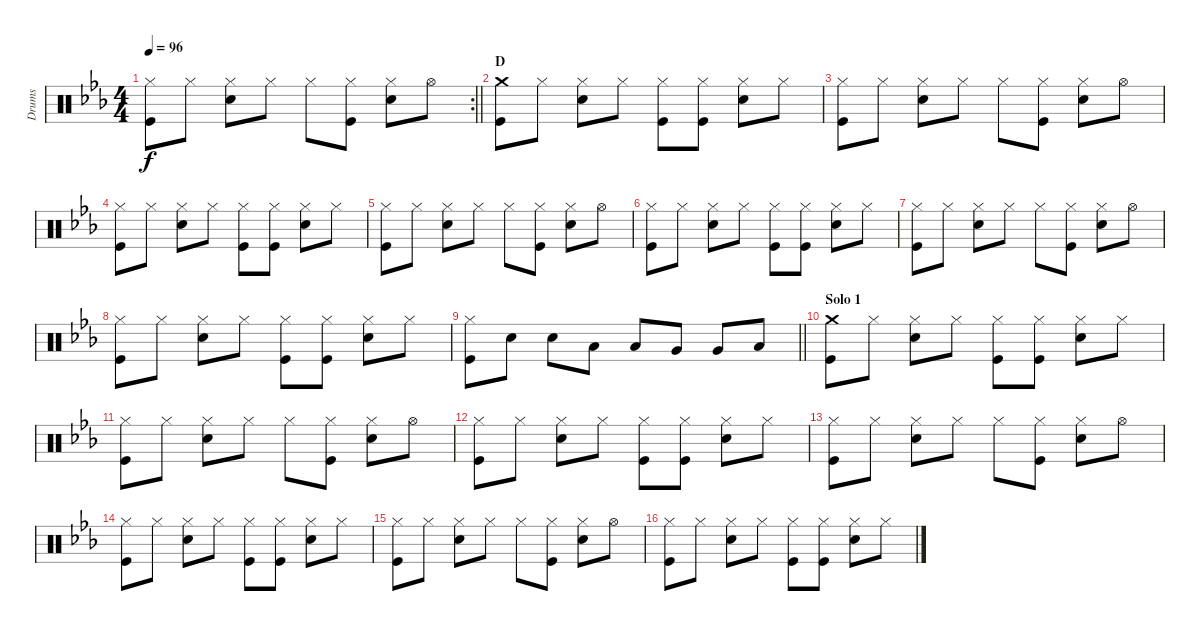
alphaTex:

\track ("Drums" "Drums") {instrument percussion}
\staff {score}
\articulation defaults
\rc 2
\ts (4 4)
\tempo 96
\clef neutral
\barLineRight lightlight
\ks cminor
("Hi-Hat (closed)" "Kick (hit)").8{dy f} "Hi-Hat (closed)".8 ("Hi-Hat (closed)" "Snare (hit) 2").8 "Hi-Hat (closed)".8 "Hi-Hat (closed)".8 ("Hi-Hat (closed)" "Kick (hit)").8 ("Hi-Hat (closed)" "Snare (hit) 2").8 "Hi-Hat (open)".8 |
\section ("" "D")
("Crash medium (hit)" "Kick (hit)").8 "Hi-Hat (closed)".8 ("Hi-Hat (closed)" "Snare (hit) 2").8 "Hi-Hat (closed)".8 ("Hi-Hat (closed)" "Kick (hit)").8 ("Hi-Hat (closed)" "Kick (hit)").8 ("Hi-Hat (closed)" "Snare (hit) 2").8 "Hi-Hat (closed)".8 |
("Hi-Hat (closed)" "Kick (hit)").8 "Hi-Hat (closed)".8 ("Hi-Hat (closed)" "Snare (hit) 2").8 "Hi-Hat (closed)".8 "Hi-Hat (closed)".8 ("Hi-Hat (closed)" "Kick (hit)").8 ("Hi-Hat (closed)" "Snare (hit) 2").8 "Hi-Hat (open)".8 |
("Hi-Hat (closed)" "Kick (hit)").8 "Hi-Hat (closed)".8 ("Hi-Hat (closed)" "Snare (hit) 2").8 "Hi-Hat (closed)".8 ("Hi-Hat (closed)" "Kick (hit)").8 ("Hi-Hat (closed)" "Kick (hit)").8 ("Hi-Hat (closed)" "Snare (hit) 2").8 "Hi-Hat (closed)".8 |
("Hi-Hat (closed)" "Kick (hit)").8 "Hi-Hat (closed)".8 ("Hi-Hat (closed)" "Snare (hit) 2").8 "Hi-Hat (closed)".8 "Hi-Hat (closed)".8 ("Hi-Hat (closed)" "Kick (hit)").8 ("Hi-Hat (closed)" "Snare (hit) 2").8 "Hi-Hat (open)".8 |
("Hi-Hat (closed)" "Kick (hit)").8 "Hi-Hat (closed)".8 ("Hi-Hat (closed)" "Snare (hit) 2").8 "Hi-Hat (closed)".8 ("Hi-Hat (closed)" "Kick (hit)").8 ("Hi-Hat (closed)" "Kick (hit)").8 ("Hi-Hat (closed)" "Snare (hit) 2").8 "Hi-Hat (closed)".8 |
("Hi-Hat (closed)" "Kick (hit)").8 "Hi-Hat (closed)".8 ("Hi-Hat (closed)" "Snare (hit) 2").8 "Hi-Hat (closed)".8 "Hi-Hat (closed)".8 ("Hi-Hat (closed)" "Kick (hit)").8 ("Hi-Hat (closed)" "Snare (hit) 2").8 "Hi-Hat (open)".8 |
("Hi-Hat (closed)" "Kick (hit)").8 "Hi-Hat (closed)".8 ("Hi-Hat (closed)" "Snare (hit) 2").8 "Hi-Hat (closed)".8 ("Hi-Hat (closed)" "Kick (hit)").8 ("Hi-Hat (closed)" "Kick (hit)").8 ("Hi-Hat (closed)" "Snare (hit) 2").8 "Hi-Hat (closed)".8 |
\barLineRight lightlight
("Hi-Hat (closed)" "Kick (hit)").8 "Snare (hit) 2".8 "Snare (hit) 2".8 "Low Tom (hit)".8 "Low Tom (hit)".8 "Very Low Tom (hit)".8 "Very Low Tom (hit)".8 "Low Floor Tom (hit)".8 |
\section ("" "Solo 1")
("Crash medium (hit)" "Kick (hit)").8 "Hi-Hat (closed)".8 ("Hi-Hat (closed)" "Snare (hit) 2").8 "Hi-Hat (closed)".8 ("Hi-Hat (closed)" "Kick (hit)").8 ("Hi-Hat (closed)" "Kick (hit)").8 ("Hi-Hat (closed)" "Snare (hit) 2").8 "Hi-Hat (closed)".8 |
("Hi-Hat (closed)" "Kick (hit)").8 "Hi-Hat (closed)".8 ("Hi-Hat (closed)" "Snare (hit) 2").8 "Hi-Hat (closed)".8 "Hi-Hat (closed)".8 ("Hi-Hat (closed)" "Kick (hit)").8 ("Hi-Hat (closed)" "Snare (hit) 2").8 "Hi-Hat (open)".8 |
("Hi-Hat (closed)" "Kick (hit)").8 "Hi-Hat (closed)".8 ("Hi-Hat (closed)" "Snare (hit) 2").8 "Hi-Hat (closed)".8 ("Hi-Hat (closed)" "Kick (hit)").8 ("Hi-Hat (closed)" "Kick (hit)").8 ("Hi-Hat (closed)" "Snare (hit) 2").8 "Hi-Hat (closed)".8 |
("Hi-Hat (closed)" "Kick (hit)").8 "Hi-Hat (closed)".8 ("Hi-Hat (closed)" "Snare (hit) 2").8 "Hi-Hat (closed)".8 "Hi-Hat (closed)".8 ("Hi-Hat (closed)" "Kick (hit)").8 ("Hi-Hat (closed)" "Snare (hit) 2").8 "Hi-Hat (open)".8 |
("Hi-Hat (closed)" "Kick (hit)").8 "Hi-Hat (closed)".8 ("Hi-Hat (closed)" "Snare (hit) 2").8 "Hi-Hat (closed)".8 ("Hi-Hat (closed)" "Kick (hit)").8 ("Hi-Hat (closed)" "Kick (hit)").8 ("Hi-Hat (closed)" "Snare (hit) 2").8 "Hi-Hat (closed)".8 |
("Hi-Hat (closed)" "Kick (hit)").8 "Hi-Hat (closed)".8 ("Hi-Hat (closed)" "Snare (hit) 2").8 "Hi-Hat (closed)".8 "Hi-Hat (closed)".8 ("Hi-Hat (closed)" "Kick (hit)").8 ("Hi-Hat (closed)" "Snare (hit) 2").8 "Hi-Hat (open)".8 |
("Hi-Hat (closed)" "Kick (hit)").8 "Hi-Hat (closed)".8 ("Hi-Hat (closed)" "Snare (hit) 2").8 "Hi-Hat (closed)".8 ("Hi-Hat (closed)" "Kick (hit)").8 ("Hi-Hat (closed)" "Kick (hit)").8 ("Hi-Hat (closed)" "Snare (hit) 2").8 "Hi-Hat (closed)".8
